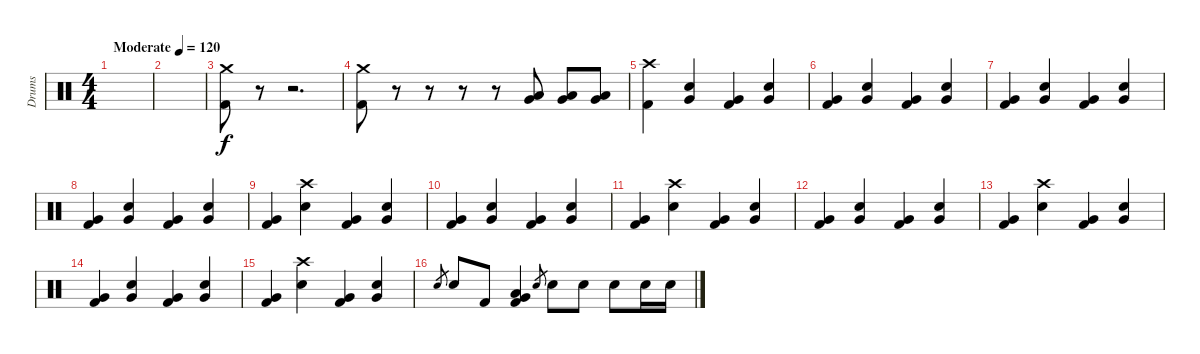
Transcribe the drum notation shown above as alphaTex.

\track ("Drums" "Drums") {instrument percussion}
\staff {score}
\articulation defaults
\ts (4 4)
\tempo (120 "Moderate")
\clef neutral
\ks c
|
|
("Crash medium (hit)" "Kick (hit) 2").8 r.8{volume 0} r.2{d} |
("Crash medium (hit)" "Kick (hit) 2").8{volume 13} r.8{volume 0} r.8 r.8 r.8 ("Very Low Tom (hit)" "Low Tom (hit)").8{volume 13} ("Very Low Tom (hit)" "Low Tom (hit)").8 ("Very Low Tom (hit)" "Low Tom (hit)").8 |
("Crash high (hit)" "Kick (hit) 2").4 ("Very Low Tom (hit)" "Snare (hit) 2").4 ("Very Low Tom (hit)" "Kick (hit) 2").4 ("Very Low Tom (hit)" "Snare (hit) 2").4 |
("Very Low Tom (hit)" "Kick (hit) 2").4 ("Very Low Tom (hit)" "Snare (hit) 2").4 ("Very Low Tom (hit)" "Kick (hit) 2").4 ("Very Low Tom (hit)" "Snare (hit) 2").4 |
("Very Low Tom (hit)" "Kick (hit) 2").4 ("Very Low Tom (hit)" "Snare (hit) 2").4 ("Very Low Tom (hit)" "Kick (hit) 2").4 ("Very Low Tom (hit)" "Snare (hit) 2").4 |
("Very Low Tom (hit)" "Kick (hit) 2").4 ("Very Low Tom (hit)" "Snare (hit) 2").4 ("Very Low Tom (hit)" "Kick (hit) 2").4 ("Very Low Tom (hit)" "Snare (hit) 2").4 |
("Very Low Tom (hit)" "Kick (hit) 2").4 ("Crash high (hit)" "Snare (hit) 2").4 ("Very Low Tom (hit)" "Kick (hit) 2").4 ("Very Low Tom (hit)" "Snare (hit) 2").4 |
("Very Low Tom (hit)" "Kick (hit) 2").4 ("Very Low Tom (hit)" "Snare (hit) 2").4 ("Very Low Tom (hit)" "Kick (hit) 2").4 ("Very Low Tom (hit)" "Snare (hit) 2").4 |
("Very Low Tom (hit)" "Kick (hit) 2").4 ("Crash high (hit)" "Snare (hit) 2").4 ("Very Low Tom (hit)" "Kick (hit) 2").4 ("Very Low Tom (hit)" "Snare (hit) 2").4 |
("Very Low Tom (hit)" "Kick (hit) 2").4 ("Very Low Tom (hit)" "Snare (hit) 2").4 ("Very Low Tom (hit)" "Kick (hit) 2").4 ("Very Low Tom (hit)" "Snare (hit) 2").4 |
("Very Low Tom (hit)" "Kick (hit) 2").4 ("Crash high (hit)" "Snare (hit) 2").4 ("Very Low Tom (hit)" "Kick (hit) 2").4 ("Very Low Tom (hit)" "Snare (hit) 2").4 |
("Very Low Tom (hit)" "Kick (hit) 2").4 ("Very Low Tom (hit)" "Snare (hit) 2").4 ("Very Low Tom (hit)" "Kick (hit) 2").4 ("Very Low Tom (hit)" "Snare (hit) 2").4 |
("Very Low Tom (hit)" "Kick (hit) 2").4 ("Crash high (hit)" "Snare (hit) 2").4 ("Very Low Tom (hit)" "Kick (hit) 2").4 ("Very Low Tom (hit)" "Snare (hit) 2").4 |
"Snare (hit) 2".8{gr} "Snare (hit) 2".8 "Kick (hit) 2".8 ("Very Low Tom (hit)" "Low Tom (hit)" "Kick (hit) 2").4 "Snare (hit) 2".8{gr} "Snare (hit) 2".8 "Snare (hit) 2".8 "Snare (hit) 2".8 "Snare (hit) 2".16 "Snare (hit) 2".16
